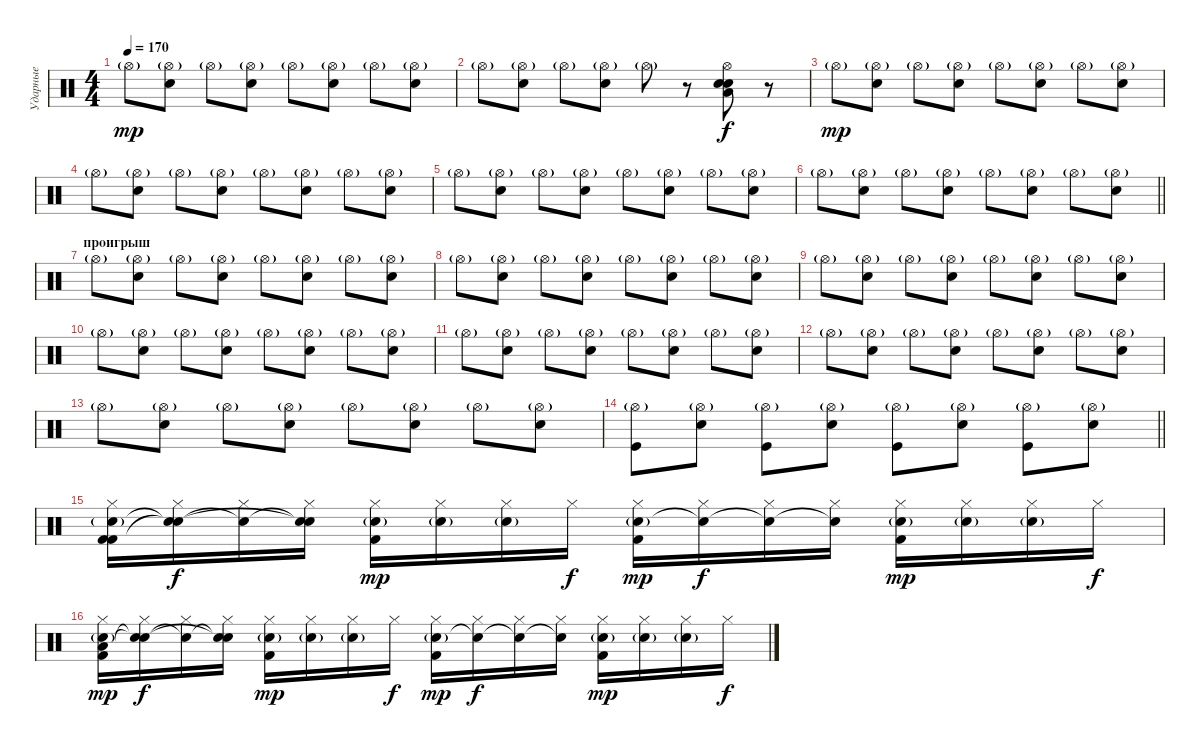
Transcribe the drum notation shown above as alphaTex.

\track ("Ударные" "Ударные") {instrument percussion}
\staff {score}
\articulation defaults
\ts (4 4)
\tempo 170
\clef neutral
\ks c "Hi-Hat (open)"{g}.8{dy mp}
("Hi-Hat (open)"{g} "Snare (hit) 2").8 "Hi-Hat (open)"{g}.8 ("Hi-Hat (open)"{g} "Snare (hit) 2").8 "Hi-Hat (open)"{g}.8 ("Hi-Hat (open)"{g} "Snare (hit) 2").8 "Hi-Hat (open)"{g}.8 ("Hi-Hat (open)"{g} "Snare (hit) 2").8 |
"Hi-Hat (open)"{g}.8 ("Hi-Hat (open)"{g} "Snare (hit) 2").8 "Hi-Hat (open)"{g}.8 ("Hi-Hat (open)"{g} "Snare (hit) 2").8 "Hi-Hat (open)"{g}.8 r.8 ("Snare (hit) 2" "Snare (hit) 2" "Low Tom (hit)" "Hi-Hat (open)").8{dy f} r.8 |
"Hi-Hat (open)"{g}.8{dy mp} ("Hi-Hat (open)"{g} "Snare (hit) 2").8 "Hi-Hat (open)"{g}.8 ("Hi-Hat (open)"{g} "Snare (hit) 2").8 "Hi-Hat (open)"{g}.8 ("Hi-Hat (open)"{g} "Snare (hit) 2").8 "Hi-Hat (open)"{g}.8 ("Hi-Hat (open)"{g} "Snare (hit) 2").8 |
"Hi-Hat (open)"{g}.8 ("Hi-Hat (open)"{g} "Snare (hit) 2").8 "Hi-Hat (open)"{g}.8 ("Hi-Hat (open)"{g} "Snare (hit) 2").8 "Hi-Hat (open)"{g}.8 ("Hi-Hat (open)"{g} "Snare (hit) 2").8 "Hi-Hat (open)"{g}.8 ("Hi-Hat (open)"{g} "Snare (hit) 2").8 |
"Hi-Hat (open)"{g}.8 ("Hi-Hat (open)"{g} "Snare (hit) 2").8 "Hi-Hat (open)"{g}.8 ("Hi-Hat (open)"{g} "Snare (hit) 2").8 "Hi-Hat (open)"{g}.8 ("Hi-Hat (open)"{g} "Snare (hit) 2").8 "Hi-Hat (open)"{g}.8 ("Hi-Hat (open)"{g} "Snare (hit) 2").8 |
\barLineRight lightlight "Hi-Hat (open)"{g}.8
("Hi-Hat (open)"{g} "Snare (hit) 2").8 "Hi-Hat (open)"{g}.8 ("Hi-Hat (open)"{g} "Snare (hit) 2").8 "Hi-Hat (open)"{g}.8 ("Hi-Hat (open)"{g} "Snare (hit) 2").8 "Hi-Hat (open)"{g}.8 ("Hi-Hat (open)"{g} "Snare (hit) 2").8 |
\section ("" "проигрыш")
"Hi-Hat (open)"{g}.8 ("Hi-Hat (open)"{g} "Snare (hit) 2").8 "Hi-Hat (open)"{g}.8 ("Hi-Hat (open)"{g} "Snare (hit) 2").8 "Hi-Hat (open)"{g}.8 ("Hi-Hat (open)"{g} "Snare (hit) 2").8 "Hi-Hat (open)"{g}.8 ("Hi-Hat (open)"{g} "Snare (hit) 2").8 |
"Hi-Hat (open)"{g}.8 ("Hi-Hat (open)"{g} "Snare (hit) 2").8 "Hi-Hat (open)"{g}.8 ("Hi-Hat (open)"{g} "Snare (hit) 2").8 "Hi-Hat (open)"{g}.8 ("Hi-Hat (open)"{g} "Snare (hit) 2").8 "Hi-Hat (open)"{g}.8 ("Hi-Hat (open)"{g} "Snare (hit) 2").8 |
"Hi-Hat (open)"{g}.8 ("Hi-Hat (open)"{g} "Snare (hit) 2").8 "Hi-Hat (open)"{g}.8 ("Hi-Hat (open)"{g} "Snare (hit) 2").8 "Hi-Hat (open)"{g}.8 ("Hi-Hat (open)"{g} "Snare (hit) 2").8 "Hi-Hat (open)"{g}.8 ("Hi-Hat (open)"{g} "Snare (hit) 2").8 |
"Hi-Hat (open)"{g}.8 ("Hi-Hat (open)"{g} "Snare (hit) 2").8 "Hi-Hat (open)"{g}.8 ("Hi-Hat (open)"{g} "Snare (hit) 2").8 "Hi-Hat (open)"{g}.8 ("Hi-Hat (open)"{g} "Snare (hit) 2").8 "Hi-Hat (open)"{g}.8 ("Hi-Hat (open)"{g} "Snare (hit) 2").8 |
"Hi-Hat (open)"{g}.8 ("Hi-Hat (open)"{g} "Snare (hit) 2").8 "Hi-Hat (open)"{g}.8 ("Hi-Hat (open)"{g} "Snare (hit) 2").8 "Hi-Hat (open)"{g}.8 ("Hi-Hat (open)"{g} "Snare (hit) 2").8 "Hi-Hat (open)"{g}.8 ("Hi-Hat (open)"{g} "Snare (hit) 2").8 |
"Hi-Hat (open)"{g}.8 ("Hi-Hat (open)"{g} "Snare (hit) 2").8 "Hi-Hat (open)"{g}.8 ("Hi-Hat (open)"{g} "Snare (hit) 2").8 "Hi-Hat (open)"{g}.8 ("Hi-Hat (open)"{g} "Snare (hit) 2").8 "Hi-Hat (open)"{g}.8 ("Hi-Hat (open)"{g} "Snare (hit) 2").8 |
"Hi-Hat (open)"{g}.8 ("Hi-Hat (open)"{g} "Snare (hit) 2").8 "Hi-Hat (open)"{g}.8 ("Hi-Hat (open)"{g} "Snare (hit) 2").8 "Hi-Hat (open)"{g}.8 ("Hi-Hat (open)"{g} "Snare (hit) 2").8 "Hi-Hat (open)"{g}.8 ("Hi-Hat (open)"{g} "Snare (hit) 2").8 |
\barLineRight lightlight
("Hi-Hat (open)"{g} "Kick (hit)").8 ("Hi-Hat (open)"{g} "Snare (hit) 2").8 ("Hi-Hat (open)"{g} "Kick (hit)").8 ("Hi-Hat (open)"{g} "Snare (hit) 2").8 ("Hi-Hat (open)"{g} "Kick (hit)").8 ("Hi-Hat (open)"{g} "Snare (hit) 2").8 ("Hi-Hat (open)"{g} "Kick (hit)").8 ("Hi-Hat (open)"{g} "Snare (hit) 2").8 |
("Hi-Hat (closed)" "Kick (hit) 2" "Snare (hit) 2"{g} "Kick (hit) 2").16 ("Hi-Hat (closed)" "Snare (hit)"{t} "Snare (hit)"{t}).16{dy f} ("Hi-Hat (closed)" "Snare (hit)"{t}).16 ("Hi-Hat (closed)" "Snare (hit) 2"{t} "Snare (hit)"{t}).16 ("Hi-Hat (closed)" "Snare (hit) 2"{g} "Kick (hit) 2").16{dy mp} ("Hi-Hat (closed)" "Snare (hit) 2"{g}).16 ("Hi-Hat (closed)" "Snare (hit) 2"{g}).16 "Hi-Hat (closed)".16{dy f} ("Hi-Hat (closed)" "Snare (hit) 2"{g} "Kick (hit) 2").16{dy mp} ("Hi-Hat (closed)" "Snare (hit) 2"{t}).16{dy f} ("Hi-Hat (closed)" "Snare (hit) 2"{t}).16 ("Hi-Hat (closed)" "Snare (hit) 2"{t}).16 ("Hi-Hat (closed)" "Snare (hit) 2"{g} "Kick (hit) 2").16{dy mp} ("Hi-Hat (closed)" "Snare (hit) 2"{g}).16 ("Hi-Hat (closed)" "Snare (hit) 2"{g}).16 "Hi-Hat (closed)".16{dy f} |
("Hi-Hat (closed)" "Low Tom (hit)" "Snare (hit) 2"{g} "Kick (hit) 2").16{dy mp} ("Hi-Hat (closed)" "Snare (hit)"{t} "Snare (hit)"{t}).16{dy f} ("Hi-Hat (closed)" "Snare (hit)"{t}).16 ("Hi-Hat (closed)" "Snare (hit) 2"{t} "Snare (hit)"{t}).16 ("Hi-Hat (closed)" "Snare (hit) 2"{g} "Kick (hit) 2").16{dy mp} ("Hi-Hat (closed)" "Snare (hit) 2"{g}).16 ("Hi-Hat (closed)" "Snare (hit) 2"{g}).16 "Hi-Hat (closed)".16{dy f} ("Hi-Hat (closed)" "Snare (hit) 2"{g} "Kick (hit) 2").16{dy mp} ("Hi-Hat (closed)" "Snare (hit) 2"{t}).16{dy f} ("Hi-Hat (closed)" "Snare (hit) 2"{t}).16 ("Hi-Hat (closed)" "Snare (hit) 2"{t}).16 ("Hi-Hat (closed)" "Snare (hit) 2"{g} "Kick (hit) 2").16{dy mp} ("Hi-Hat (closed)" "Snare (hit) 2"{g}).16 ("Hi-Hat (closed)" "Snare (hit) 2"{g}).16 "Hi-Hat (closed)".16{dy f}
